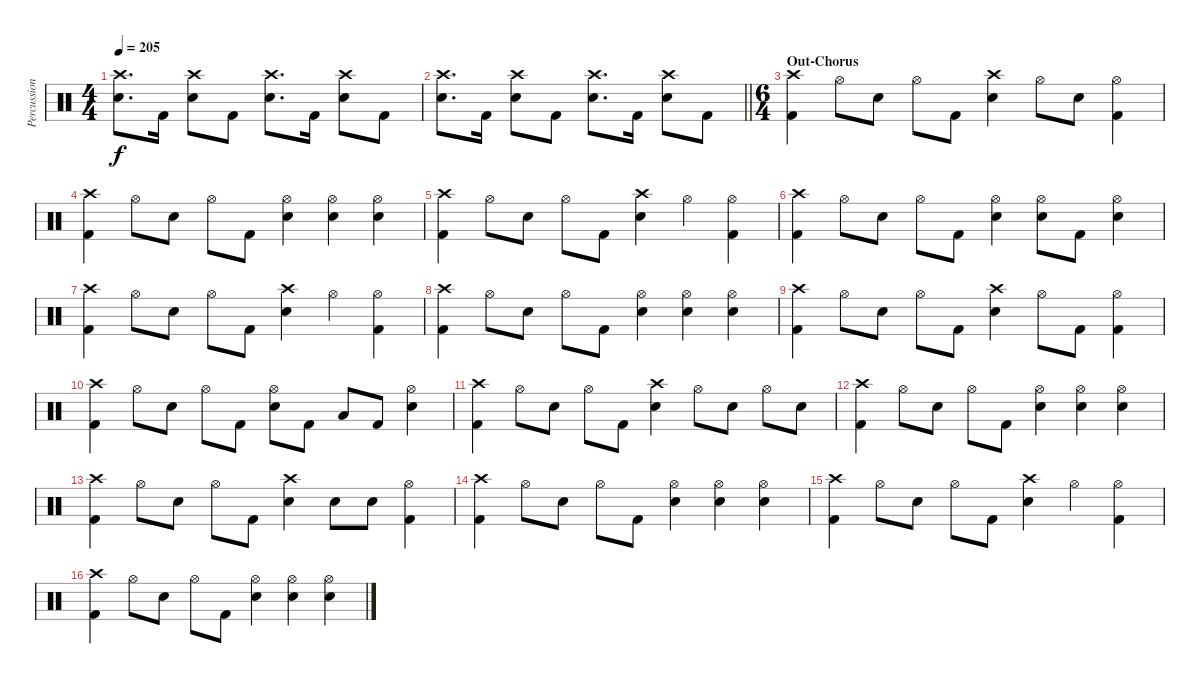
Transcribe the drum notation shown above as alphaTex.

\track ("Percussion" "Percussion") {instrument percussion}
\staff {score}
\articulation defaults
\ts (4 4)
\tempo 205
\clef neutral
\ks c
("Crash high (hit)" "Snare (hit) 2").8{d dy f} "Kick (hit) 2".16 ("Crash high (hit)" "Snare (hit) 2").8 "Kick (hit) 2".8 ("Crash high (hit)" "Snare (hit) 2").8{d} "Kick (hit) 2".16 ("Crash high (hit)" "Snare (hit) 2").8 "Kick (hit) 2".8 |
\barLineRight lightlight
("Crash high (hit)" "Snare (hit) 2").8{d} "Kick (hit) 2".16 ("Crash high (hit)" "Snare (hit) 2").8 "Kick (hit) 2".8 ("Crash high (hit)" "Snare (hit) 2").8{d} "Kick (hit) 2".16 ("Crash high (hit)" "Snare (hit) 2").8 "Kick (hit) 2".8 |
\ts (6 4)
\section ("" "Out-Chorus")
("Crash high (hit)" "Kick (hit) 2").4 "Hi-Hat (open)".8 "Snare (hit) 2".8 "Hi-Hat (open)".8 "Kick (hit) 2".8 ("Crash high (hit)" "Snare (hit) 2").4 "Hi-Hat (open)".8 "Snare (hit) 2".8 ("Hi-Hat (open)" "Kick (hit) 2").4 |
("Crash high (hit)" "Kick (hit) 2").4 "Hi-Hat (open)".8 "Snare (hit) 2".8 "Hi-Hat (open)".8 "Kick (hit) 2".8 ("Hi-Hat (open)" "Snare (hit) 2").4 ("Hi-Hat (open)" "Snare (hit) 2").4 ("Hi-Hat (open)" "Snare (hit) 2").4 |
("Crash high (hit)" "Kick (hit) 2").4 "Hi-Hat (open)".8 "Snare (hit) 2".8 "Hi-Hat (open)".8 "Kick (hit) 2".8 ("Crash high (hit)" "Snare (hit) 2").4 "Hi-Hat (open)".4 ("Hi-Hat (open)" "Kick (hit) 2").4 |
("Crash high (hit)" "Kick (hit) 2").4 "Hi-Hat (open)".8 "Snare (hit) 2".8 "Hi-Hat (open)".8 "Kick (hit) 2".8 ("Hi-Hat (open)" "Snare (hit) 2").4 ("Hi-Hat (open)" "Snare (hit) 2").8 "Kick (hit) 2".8 ("Hi-Hat (open)" "Snare (hit) 2").4 |
("Crash high (hit)" "Kick (hit) 2").4 "Hi-Hat (open)".8 "Snare (hit) 2".8 "Hi-Hat (open)".8 "Kick (hit) 2".8 ("Crash high (hit)" "Snare (hit) 2").4 "Hi-Hat (open)".4 ("Hi-Hat (open)" "Kick (hit) 2").4 |
("Crash high (hit)" "Kick (hit) 2").4 "Hi-Hat (open)".8 "Snare (hit) 2".8 "Hi-Hat (open)".8 "Kick (hit) 2".8 ("Hi-Hat (open)" "Snare (hit) 2").4 ("Hi-Hat (open)" "Snare (hit) 2").4 ("Hi-Hat (open)" "Snare (hit) 2").4 |
("Crash high (hit)" "Kick (hit) 2").4 "Hi-Hat (open)".8 "Snare (hit) 2".8 "Hi-Hat (open)".8 "Kick (hit) 2".8 ("Crash high (hit)" "Snare (hit) 2").4 "Hi-Hat (open)".8 "Kick (hit) 2".8 ("Hi-Hat (open)" "Kick (hit) 2").4 |
("Crash high (hit)" "Kick (hit) 2").4 "Hi-Hat (open)".8 "Snare (hit) 2".8 "Hi-Hat (open)".8 "Kick (hit) 2".8 ("Hi-Hat (open)" "Snare (hit) 2").8 "Kick (hit) 2".8 "Low Tom (hit)".8 "Kick (hit) 2".8 ("Hi-Hat (open)" "Snare (hit) 2").4 |
("Crash high (hit)" "Kick (hit) 2").4 "Hi-Hat (open)".8 "Snare (hit) 2".8 "Hi-Hat (open)".8 "Kick (hit) 2".8 ("Crash high (hit)" "Snare (hit) 2").4 "Hi-Hat (open)".8 "Snare (hit) 2".8 "Hi-Hat (open)".8 "Snare (hit) 2".8 |
("Crash high (hit)" "Kick (hit) 2").4 "Hi-Hat (open)".8 "Snare (hit) 2".8 "Hi-Hat (open)".8 "Kick (hit) 2".8 ("Hi-Hat (open)" "Snare (hit) 2").4 ("Hi-Hat (open)" "Snare (hit) 2").4 ("Hi-Hat (open)" "Snare (hit) 2").4 |
("Crash high (hit)" "Kick (hit) 2").4 "Hi-Hat (open)".8 "Snare (hit) 2".8 "Hi-Hat (open)".8 "Kick (hit) 2".8 ("Crash high (hit)" "Snare (hit) 2").4 "Snare (hit) 2".8 "Snare (hit) 2".8 ("Hi-Hat (open)" "Kick (hit) 2").4 |
("Crash high (hit)" "Kick (hit) 2").4 "Hi-Hat (open)".8 "Snare (hit) 2".8 "Hi-Hat (open)".8 "Kick (hit) 2".8 ("Hi-Hat (open)" "Snare (hit) 2").4 ("Hi-Hat (open)" "Snare (hit) 2").4 ("Hi-Hat (open)" "Snare (hit) 2").4 |
("Crash high (hit)" "Kick (hit) 2").4 "Hi-Hat (open)".8 "Snare (hit) 2".8 "Hi-Hat (open)".8 "Kick (hit) 2".8 ("Crash high (hit)" "Snare (hit) 2").4 "Hi-Hat (open)".4 ("Hi-Hat (open)" "Kick (hit) 2").4 |
("Crash high (hit)" "Kick (hit) 2").4 "Hi-Hat (open)".8 "Snare (hit) 2".8 "Hi-Hat (open)".8 "Kick (hit) 2".8 ("Hi-Hat (open)" "Snare (hit) 2").4 ("Hi-Hat (open)" "Snare (hit) 2").4 ("Hi-Hat (open)" "Snare (hit) 2").4
